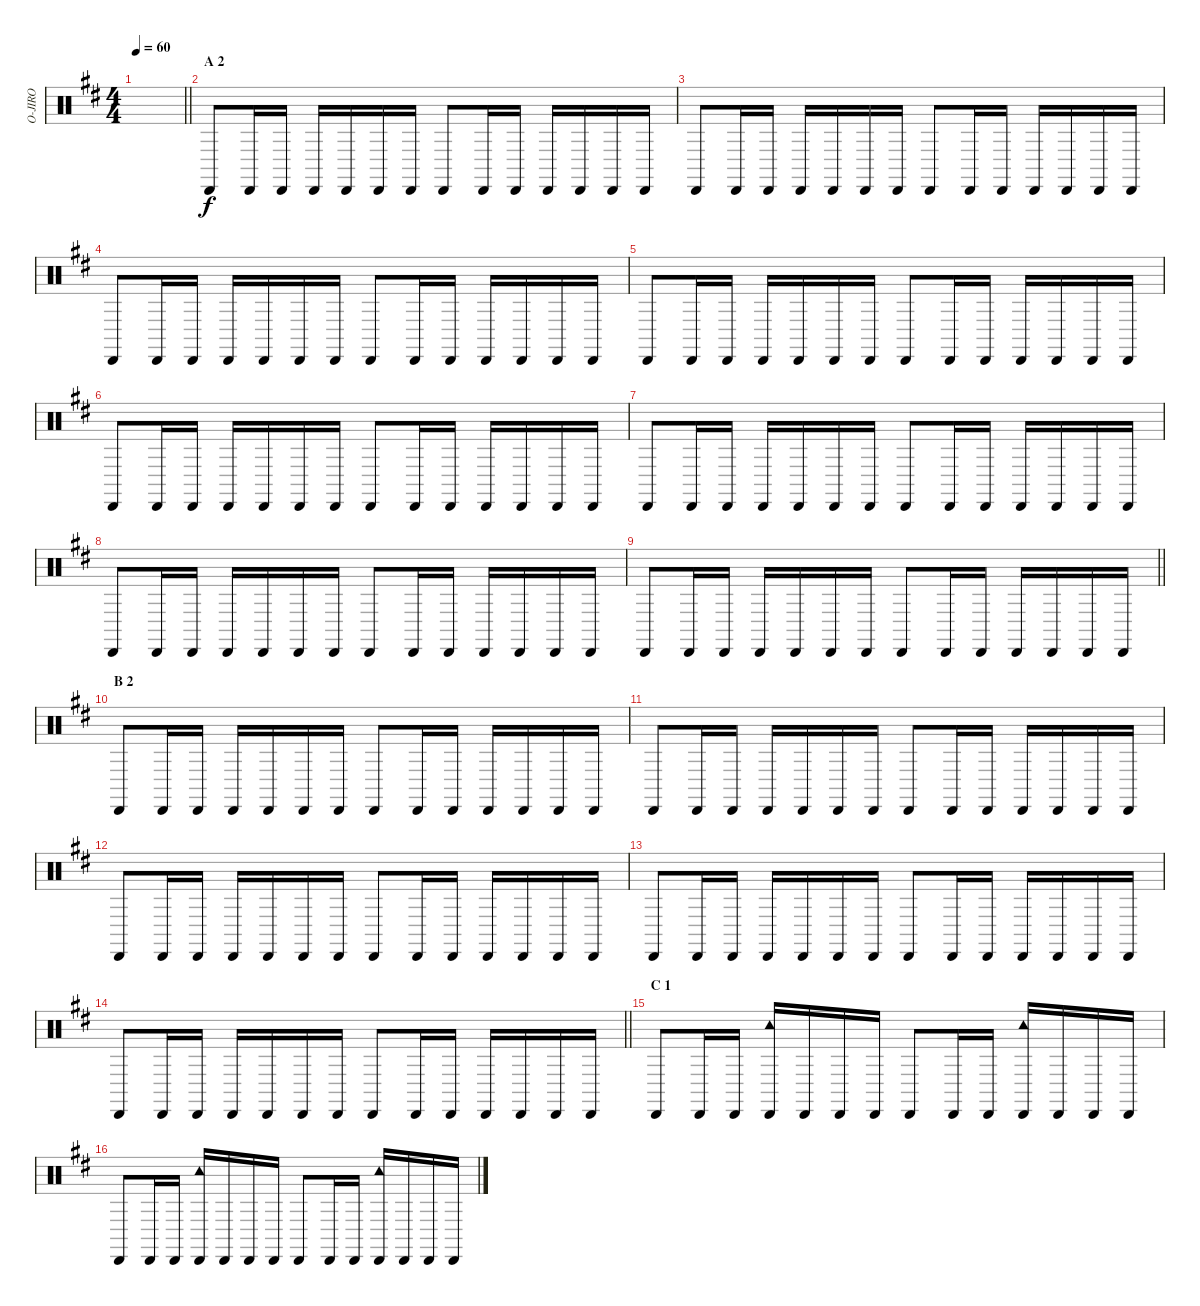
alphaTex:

\track ("O-JIRO" "O-JIRO") {instrument percussion}
\staff {score}
\articulation defaults
\ts (4 4)
\tempo 60
\clef neutral
\barLineRight lightlight
\ks d
|
\section ("" "A 2")
"Cabasa (hit)".8 "Cabasa (hit)".16 "Cabasa (hit)".16 "Cabasa (hit)".16 "Cabasa (hit)".16 "Cabasa (hit)".16 "Cabasa (hit)".16 "Cabasa (hit)".8 "Cabasa (hit)".16 "Cabasa (hit)".16 "Cabasa (hit)".16 "Cabasa (hit)".16 "Cabasa (hit)".16 "Cabasa (hit)".16 |
"Cabasa (hit)".8 "Cabasa (hit)".16 "Cabasa (hit)".16 "Cabasa (hit)".16 "Cabasa (hit)".16 "Cabasa (hit)".16 "Cabasa (hit)".16 "Cabasa (hit)".8 "Cabasa (hit)".16 "Cabasa (hit)".16 "Cabasa (hit)".16 "Cabasa (hit)".16 "Cabasa (hit)".16 "Cabasa (hit)".16 |
"Cabasa (hit)".8 "Cabasa (hit)".16 "Cabasa (hit)".16 "Cabasa (hit)".16 "Cabasa (hit)".16 "Cabasa (hit)".16 "Cabasa (hit)".16 "Cabasa (hit)".8 "Cabasa (hit)".16 "Cabasa (hit)".16 "Cabasa (hit)".16 "Cabasa (hit)".16 "Cabasa (hit)".16 "Cabasa (hit)".16 |
"Cabasa (hit)".8 "Cabasa (hit)".16 "Cabasa (hit)".16 "Cabasa (hit)".16 "Cabasa (hit)".16 "Cabasa (hit)".16 "Cabasa (hit)".16 "Cabasa (hit)".8 "Cabasa (hit)".16 "Cabasa (hit)".16 "Cabasa (hit)".16 "Cabasa (hit)".16 "Cabasa (hit)".16 "Cabasa (hit)".16 |
"Cabasa (hit)".8 "Cabasa (hit)".16 "Cabasa (hit)".16 "Cabasa (hit)".16 "Cabasa (hit)".16 "Cabasa (hit)".16 "Cabasa (hit)".16 "Cabasa (hit)".8 "Cabasa (hit)".16 "Cabasa (hit)".16 "Cabasa (hit)".16 "Cabasa (hit)".16 "Cabasa (hit)".16 "Cabasa (hit)".16 |
"Cabasa (hit)".8 "Cabasa (hit)".16 "Cabasa (hit)".16 "Cabasa (hit)".16 "Cabasa (hit)".16 "Cabasa (hit)".16 "Cabasa (hit)".16 "Cabasa (hit)".8 "Cabasa (hit)".16 "Cabasa (hit)".16 "Cabasa (hit)".16 "Cabasa (hit)".16 "Cabasa (hit)".16 "Cabasa (hit)".16 |
"Cabasa (hit)".8 "Cabasa (hit)".16 "Cabasa (hit)".16 "Cabasa (hit)".16 "Cabasa (hit)".16 "Cabasa (hit)".16 "Cabasa (hit)".16 "Cabasa (hit)".8 "Cabasa (hit)".16 "Cabasa (hit)".16 "Cabasa (hit)".16 "Cabasa (hit)".16 "Cabasa (hit)".16 "Cabasa (hit)".16 |
\barLineRight lightlight "Cabasa (hit)".8 "Cabasa (hit)".16 "Cabasa (hit)".16 "Cabasa (hit)".16 "Cabasa (hit)".16 "Cabasa (hit)".16 "Cabasa (hit)".16 "Cabasa (hit)".8 "Cabasa (hit)".16 "Cabasa (hit)".16 "Cabasa (hit)".16 "Cabasa (hit)".16 "Cabasa (hit)".16 "Cabasa (hit)".16
|
\section ("" "B 2")
"Cabasa (hit)".8 "Cabasa (hit)".16 "Cabasa (hit)".16 "Cabasa (hit)".16 "Cabasa (hit)".16 "Cabasa (hit)".16 "Cabasa (hit)".16 "Cabasa (hit)".8 "Cabasa (hit)".16 "Cabasa (hit)".16 "Cabasa (hit)".16 "Cabasa (hit)".16 "Cabasa (hit)".16 "Cabasa (hit)".16 |
"Cabasa (hit)".8 "Cabasa (hit)".16 "Cabasa (hit)".16 "Cabasa (hit)".16 "Cabasa (hit)".16 "Cabasa (hit)".16 "Cabasa (hit)".16 "Cabasa (hit)".8 "Cabasa (hit)".16 "Cabasa (hit)".16 "Cabasa (hit)".16 "Cabasa (hit)".16 "Cabasa (hit)".16 "Cabasa (hit)".16 |
"Cabasa (hit)".8 "Cabasa (hit)".16 "Cabasa (hit)".16 "Cabasa (hit)".16 "Cabasa (hit)".16 "Cabasa (hit)".16 "Cabasa (hit)".16 "Cabasa (hit)".8 "Cabasa (hit)".16 "Cabasa (hit)".16 "Cabasa (hit)".16 "Cabasa (hit)".16 "Cabasa (hit)".16 "Cabasa (hit)".16 |
"Cabasa (hit)".8 "Cabasa (hit)".16 "Cabasa (hit)".16 "Cabasa (hit)".16 "Cabasa (hit)".16 "Cabasa (hit)".16 "Cabasa (hit)".16 "Cabasa (hit)".8 "Cabasa (hit)".16 "Cabasa (hit)".16 "Cabasa (hit)".16 "Cabasa (hit)".16 "Cabasa (hit)".16 "Cabasa (hit)".16 |
\barLineRight lightlight "Cabasa (hit)".8 "Cabasa (hit)".16 "Cabasa (hit)".16 "Cabasa (hit)".16 "Cabasa (hit)".16 "Cabasa (hit)".16 "Cabasa (hit)".16 "Cabasa (hit)".8 "Cabasa (hit)".16 "Cabasa (hit)".16 "Cabasa (hit)".16 "Cabasa (hit)".16 "Cabasa (hit)".16 "Cabasa (hit)".16
|
\section ("" "C 1")
"Cabasa (hit)".8 "Cabasa (hit)".16 "Cabasa (hit)".16 ("Cabasa (hit)" "Tambourine (hit)").16 "Cabasa (hit)".16 "Cabasa (hit)".16 "Cabasa (hit)".16 "Cabasa (hit)".8 "Cabasa (hit)".16 "Cabasa (hit)".16 ("Cabasa (hit)" "Tambourine (hit)").16 "Cabasa (hit)".16 "Cabasa (hit)".16 "Cabasa (hit)".16 |
"Cabasa (hit)".8 "Cabasa (hit)".16 "Cabasa (hit)".16 ("Cabasa (hit)" "Tambourine (hit)").16 "Cabasa (hit)".16 "Cabasa (hit)".16 "Cabasa (hit)".16 "Cabasa (hit)".8 "Cabasa (hit)".16 "Cabasa (hit)".16 ("Cabasa (hit)" "Tambourine (hit)").16 "Cabasa (hit)".16 "Cabasa (hit)".16 "Cabasa (hit)".16
